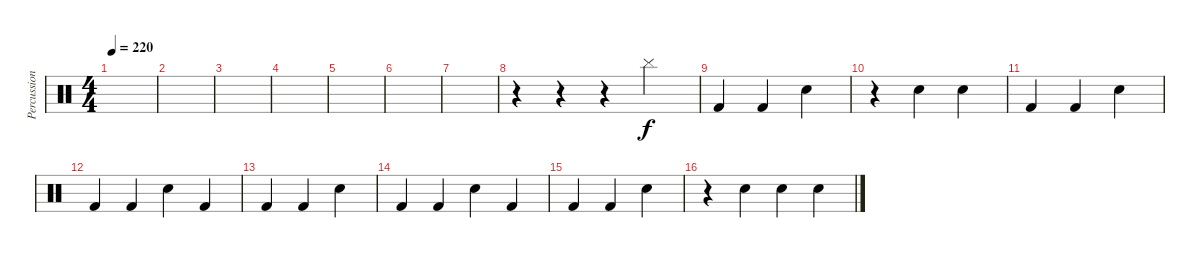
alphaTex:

\track ("Percussion" "Percussion") {instrument percussion}
\staff {score}
\articulation defaults
\ts (4 4)
\tempo 220
\clef neutral
\ks c
|
|
|
|
|
|
|
r.4 r.4 r.4 "Cymbal (hit)".2{volume 16} |
"Kick (hit) 2".4 "Kick (hit) 2".4 "Snare (hit) 2".4 |
r.4 "Hand Clap (hit)".4{volume 16} "Hand Clap (hit)".4{volume 16} |
"Kick (hit) 2".4 "Kick (hit) 2".4 "Snare (hit) 2".4 |
"Kick (hit) 2".4 "Kick (hit) 2".4 "Snare (hit) 2".4 "Kick (hit) 2".4 |
"Kick (hit) 2".4 "Kick (hit) 2".4 "Snare (hit) 2".4 |
"Kick (hit) 2".4 "Kick (hit) 2".4 "Snare (hit) 2".4 "Kick (hit) 2".4 |
"Kick (hit) 2".4 "Kick (hit) 2".4 "Snare (hit) 2".4 |
r.4 "Hand Clap (hit)".4{volume 16} "Hand Clap (hit)".4 "Hand Clap (hit)".4
